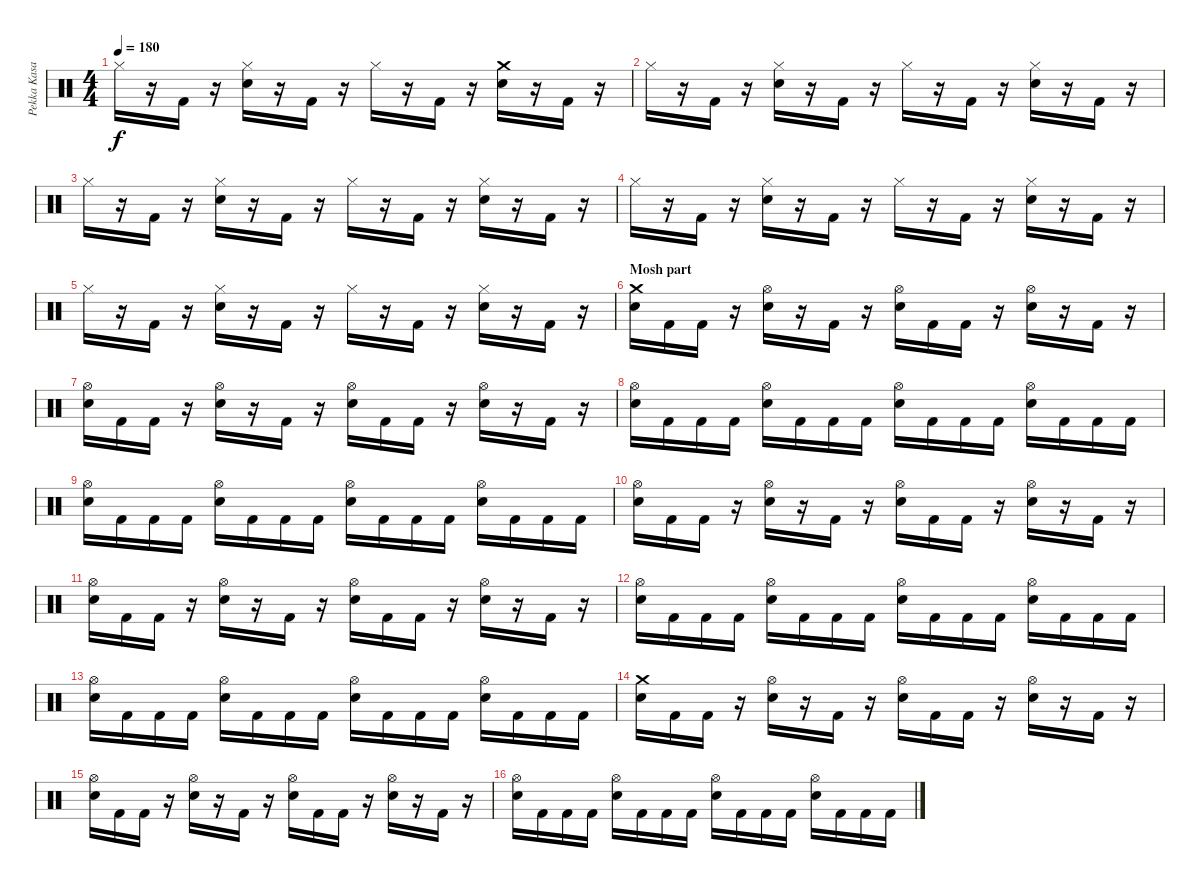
\track ("Pekka Kasari" "Pekka Kasa") {instrument percussion}
\staff {score}
\articulation defaults
\ts (4 4)
\tempo 180
\clef neutral
\ks c "Hi-Hat (closed)".16{dy f}
r.16 "Kick (hit) 2".16 r.16 ("Hi-Hat (closed)" "Electric Snare (hit)").16 r.16 "Kick (hit) 2".16 r.16 "Hi-Hat (closed)".16 r.16 "Kick (hit) 2".16 r.16 ("Crash medium (hit)" "Electric Snare (hit)").16 r.16 "Kick (hit) 2".16 r.16 |
"Hi-Hat (closed)".16 r.16 "Kick (hit) 2".16 r.16 ("Hi-Hat (closed)" "Electric Snare (hit)").16 r.16 "Kick (hit) 2".16 r.16 "Hi-Hat (closed)".16 r.16 "Kick (hit) 2".16 r.16 ("Hi-Hat (closed)" "Electric Snare (hit)").16 r.16 "Kick (hit) 2".16 r.16 |
"Hi-Hat (closed)".16 r.16 "Kick (hit) 2".16 r.16 ("Hi-Hat (closed)" "Electric Snare (hit)").16 r.16 "Kick (hit) 2".16 r.16 "Hi-Hat (closed)".16 r.16 "Kick (hit) 2".16 r.16 ("Hi-Hat (closed)" "Electric Snare (hit)").16 r.16 "Kick (hit) 2".16 r.16 |
"Hi-Hat (closed)".16 r.16 "Kick (hit) 2".16 r.16 ("Hi-Hat (closed)" "Electric Snare (hit)").16 r.16 "Kick (hit) 2".16 r.16 "Hi-Hat (closed)".16 r.16 "Kick (hit) 2".16 r.16 ("Hi-Hat (closed)" "Electric Snare (hit)").16 r.16 "Kick (hit) 2".16 r.16 |
"Hi-Hat (closed)".16 r.16 "Kick (hit) 2".16 r.16 ("Hi-Hat (closed)" "Electric Snare (hit)").16 r.16 "Kick (hit) 2".16 r.16 "Hi-Hat (closed)".16 r.16 "Kick (hit) 2".16 r.16 ("Hi-Hat (closed)" "Electric Snare (hit)").16 r.16 "Kick (hit) 2".16 r.16 |
\section ("" "Mosh part")
("Crash medium (hit)" "Electric Snare (hit)").16 "Kick (hit) 2".16 "Kick (hit) 2".16 r.16 ("Hi-Hat (open)" "Electric Snare (hit)").16 r.16 "Kick (hit) 2".16 r.16 ("Hi-Hat (open)" "Electric Snare (hit)").16 "Kick (hit) 2".16 "Kick (hit) 2".16 r.16 ("Hi-Hat (open)" "Electric Snare (hit)").16 r.16 "Kick (hit) 2".16 r.16 |
("Hi-Hat (open)" "Electric Snare (hit)").16 "Kick (hit) 2".16 "Kick (hit) 2".16 r.16 ("Hi-Hat (open)" "Electric Snare (hit)").16 r.16 "Kick (hit) 2".16 r.16 ("Hi-Hat (open)" "Electric Snare (hit)").16 "Kick (hit) 2".16 "Kick (hit) 2".16 r.16 ("Hi-Hat (open)" "Electric Snare (hit)").16 r.16 "Kick (hit) 2".16 r.16 |
("Hi-Hat (open)" "Electric Snare (hit)").16 "Kick (hit) 2".16 "Kick (hit) 2".16 "Kick (hit) 2".16 ("Hi-Hat (open)" "Electric Snare (hit)").16 "Kick (hit) 2".16 "Kick (hit) 2".16 "Kick (hit) 2".16 ("Hi-Hat (open)" "Electric Snare (hit)").16 "Kick (hit) 2".16 "Kick (hit) 2".16 "Kick (hit) 2".16 ("Hi-Hat (open)" "Electric Snare (hit)").16 "Kick (hit) 2".16 "Kick (hit) 2".16 "Kick (hit) 2".16 |
("Hi-Hat (open)" "Electric Snare (hit)").16 "Kick (hit) 2".16 "Kick (hit) 2".16 "Kick (hit) 2".16 ("Hi-Hat (open)" "Electric Snare (hit)").16 "Kick (hit) 2".16 "Kick (hit) 2".16 "Kick (hit) 2".16 ("Hi-Hat (open)" "Electric Snare (hit)").16 "Kick (hit) 2".16 "Kick (hit) 2".16 "Kick (hit) 2".16 ("Hi-Hat (open)" "Electric Snare (hit)").16 "Kick (hit) 2".16 "Kick (hit) 2".16 "Kick (hit) 2".16 |
("Hi-Hat (open)" "Electric Snare (hit)").16 "Kick (hit) 2".16 "Kick (hit) 2".16 r.16 ("Hi-Hat (open)" "Electric Snare (hit)").16 r.16 "Kick (hit) 2".16 r.16 ("Hi-Hat (open)" "Electric Snare (hit)").16 "Kick (hit) 2".16 "Kick (hit) 2".16 r.16 ("Hi-Hat (open)" "Electric Snare (hit)").16 r.16 "Kick (hit) 2".16 r.16 |
("Hi-Hat (open)" "Electric Snare (hit)").16 "Kick (hit) 2".16 "Kick (hit) 2".16 r.16 ("Hi-Hat (open)" "Electric Snare (hit)").16 r.16 "Kick (hit) 2".16 r.16 ("Hi-Hat (open)" "Electric Snare (hit)").16 "Kick (hit) 2".16 "Kick (hit) 2".16 r.16 ("Hi-Hat (open)" "Electric Snare (hit)").16 r.16 "Kick (hit) 2".16 r.16 |
("Hi-Hat (open)" "Electric Snare (hit)").16 "Kick (hit) 2".16 "Kick (hit) 2".16 "Kick (hit) 2".16 ("Hi-Hat (open)" "Electric Snare (hit)").16 "Kick (hit) 2".16 "Kick (hit) 2".16 "Kick (hit) 2".16 ("Hi-Hat (open)" "Electric Snare (hit)").16 "Kick (hit) 2".16 "Kick (hit) 2".16 "Kick (hit) 2".16 ("Hi-Hat (open)" "Electric Snare (hit)").16 "Kick (hit) 2".16 "Kick (hit) 2".16 "Kick (hit) 2".16 |
("Hi-Hat (open)" "Electric Snare (hit)").16 "Kick (hit) 2".16 "Kick (hit) 2".16 "Kick (hit) 2".16 ("Hi-Hat (open)" "Electric Snare (hit)").16 "Kick (hit) 2".16 "Kick (hit) 2".16 "Kick (hit) 2".16 ("Hi-Hat (open)" "Electric Snare (hit)").16 "Kick (hit) 2".16 "Kick (hit) 2".16 "Kick (hit) 2".16 ("Hi-Hat (open)" "Electric Snare (hit)").16 "Kick (hit) 2".16 "Kick (hit) 2".16 "Kick (hit) 2".16 |
("Crash medium (hit)" "Electric Snare (hit)").16 "Kick (hit) 2".16 "Kick (hit) 2".16 r.16 ("Hi-Hat (open)" "Electric Snare (hit)").16 r.16 "Kick (hit) 2".16 r.16 ("Hi-Hat (open)" "Electric Snare (hit)").16 "Kick (hit) 2".16 "Kick (hit) 2".16 r.16 ("Hi-Hat (open)" "Electric Snare (hit)").16 r.16 "Kick (hit) 2".16 r.16 |
("Hi-Hat (open)" "Electric Snare (hit)").16 "Kick (hit) 2".16 "Kick (hit) 2".16 r.16 ("Hi-Hat (open)" "Electric Snare (hit)").16 r.16 "Kick (hit) 2".16 r.16 ("Hi-Hat (open)" "Electric Snare (hit)").16 "Kick (hit) 2".16 "Kick (hit) 2".16 r.16 ("Hi-Hat (open)" "Electric Snare (hit)").16 r.16 "Kick (hit) 2".16 r.16 |
("Hi-Hat (open)" "Electric Snare (hit)").16 "Kick (hit) 2".16 "Kick (hit) 2".16 "Kick (hit) 2".16 ("Hi-Hat (open)" "Electric Snare (hit)").16 "Kick (hit) 2".16 "Kick (hit) 2".16 "Kick (hit) 2".16 ("Hi-Hat (open)" "Electric Snare (hit)").16 "Kick (hit) 2".16 "Kick (hit) 2".16 "Kick (hit) 2".16 ("Hi-Hat (open)" "Electric Snare (hit)").16 "Kick (hit) 2".16 "Kick (hit) 2".16 "Kick (hit) 2".16
